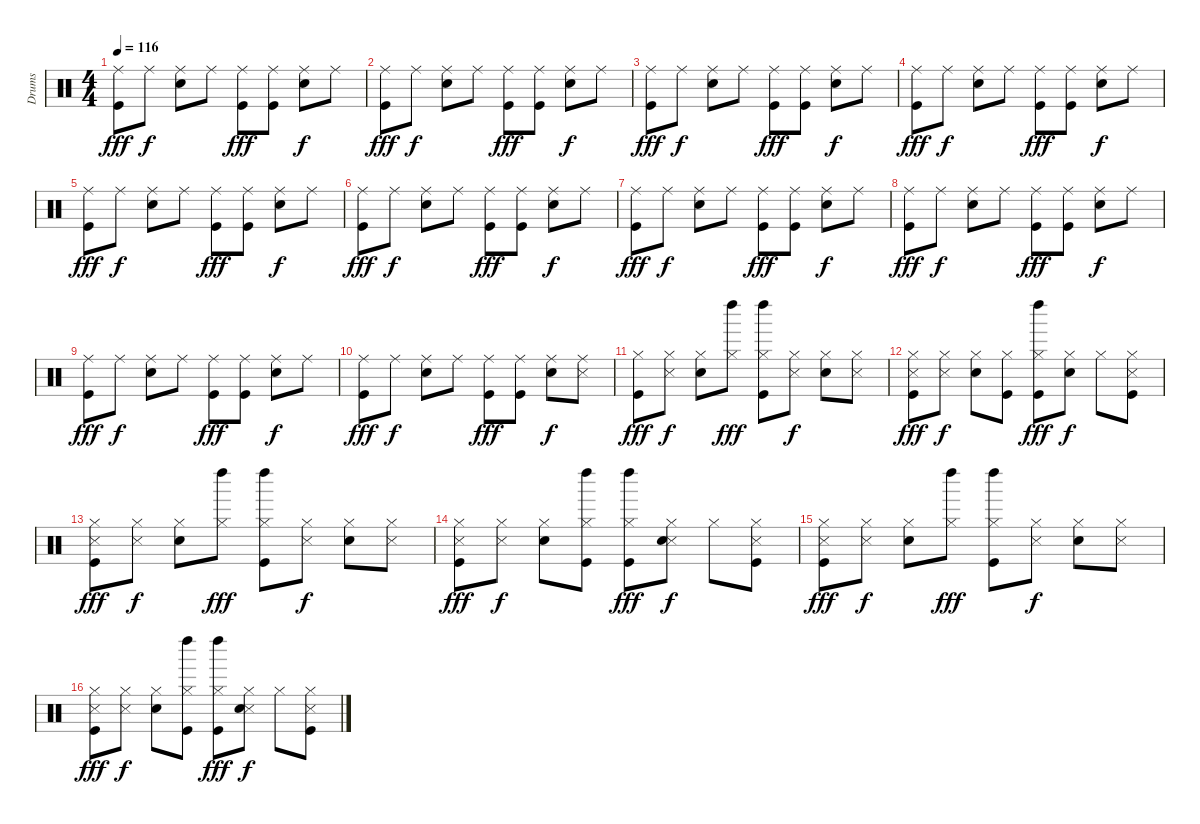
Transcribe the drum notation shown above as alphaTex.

\track ("Drums" "Drums") {instrument percussion}
\staff {score}
\articulation defaults
\ts (4 4)
\tempo 116
\clef neutral
\ks c
("Ride (middle)" "Kick (hit)").8{dy fff} "Ride (middle)".8{dy f} ("Ride (middle)" "Snare (hit) 2").8 "Ride (middle)".8 ("Ride (middle)" "Kick (hit)").8{dy fff} ("Ride (middle)" "Kick (hit)").8 ("Ride (middle)" "Snare (hit) 2").8{dy f} "Ride (middle)".8 |
("Ride (middle)" "Kick (hit)").8{dy fff} "Ride (middle)".8{dy f} ("Ride (middle)" "Snare (hit) 2").8 "Ride (middle)".8 ("Ride (middle)" "Kick (hit)").8{dy fff} ("Ride (middle)" "Kick (hit)").8 ("Ride (middle)" "Snare (hit) 2").8{dy f} "Ride (middle)".8 |
("Ride (middle)" "Kick (hit)").8{dy fff} "Ride (middle)".8{dy f} ("Ride (middle)" "Snare (hit) 2").8 "Ride (middle)".8 ("Ride (middle)" "Kick (hit)").8{dy fff} ("Ride (middle)" "Kick (hit)").8 ("Ride (middle)" "Snare (hit) 2").8{dy f} "Ride (middle)".8 |
("Ride (middle)" "Kick (hit)").8{dy fff} "Ride (middle)".8{dy f} ("Ride (middle)" "Snare (hit) 2").8 "Ride (middle)".8 ("Ride (middle)" "Kick (hit)").8{dy fff} ("Ride (middle)" "Kick (hit)").8 ("Ride (middle)" "Snare (hit) 2").8{dy f} "Ride (middle)".8 |
("Ride (middle)" "Kick (hit)").8{dy fff} "Ride (middle)".8{dy f} ("Ride (middle)" "Snare (hit) 2").8 "Ride (middle)".8 ("Ride (middle)" "Kick (hit)").8{dy fff} ("Ride (middle)" "Kick (hit)").8 ("Ride (middle)" "Snare (hit) 2").8{dy f} "Ride (middle)".8 |
("Ride (middle)" "Kick (hit)").8{dy fff} "Ride (middle)".8{dy f} ("Ride (middle)" "Snare (hit) 2").8 "Ride (middle)".8 ("Ride (middle)" "Kick (hit)").8{dy fff} ("Ride (middle)" "Kick (hit)").8 ("Ride (middle)" "Snare (hit) 2").8{dy f} "Ride (middle)".8 |
("Ride (middle)" "Kick (hit)").8{dy fff} "Ride (middle)".8{dy f} ("Ride (middle)" "Snare (hit) 2").8 "Ride (middle)".8 ("Ride (middle)" "Kick (hit)").8{dy fff} ("Ride (middle)" "Kick (hit)").8 ("Ride (middle)" "Snare (hit) 2").8{dy f} "Ride (middle)".8 |
("Ride (middle)" "Kick (hit)").8{dy fff} "Ride (middle)".8{dy f} ("Ride (middle)" "Snare (hit) 2").8 "Ride (middle)".8 ("Ride (middle)" "Kick (hit)").8{dy fff} ("Ride (middle)" "Kick (hit)").8 ("Ride (middle)" "Snare (hit) 2").8{dy f} "Ride (middle)".8 |
("Ride (middle)" "Kick (hit)").8{dy fff} "Ride (middle)".8{dy f} ("Ride (middle)" "Snare (hit) 2").8 "Ride (middle)".8 ("Ride (middle)" "Kick (hit)").8{dy fff} ("Ride (middle)" "Kick (hit)").8 ("Ride (middle)" "Snare (hit) 2").8{dy f} "Ride (middle)".8 |
("Ride (middle)" "Kick (hit)").8{dy fff} "Ride (middle)".8{dy f} ("Ride (middle)" "Snare (hit) 2").8 "Ride (middle)".8 ("Ride (middle)" "Kick (hit)").8{dy fff} ("Ride (middle)" "Kick (hit)").8 ("Ride (middle)" "Snare (hit) 2").8{dy f} ("Ride (middle)" "Snare (side stick) 3").8 |
("Hi-Hat (closed)" "Kick (hit)").8{dy fff} ("Hi-Hat (closed)" "Snare (side stick) 3").8{dy f} ("Hi-Hat (closed)" "Snare (hit) 2").8 ("Hi-Hat (closed)" "Left Maraca (hit)").8{dy fff} ("Hi-Hat (closed)" "Left Maraca (hit)" "Kick (hit)").8 ("Hi-Hat (closed)" "Snare (side stick) 3").8{dy f} ("Hi-Hat (closed)" "Snare (hit) 2").8 ("Hi-Hat (closed)" "Snare (side stick) 3").8 |
("Hi-Hat (closed)" "Snare (side stick) 3" "Kick (hit)").8{dy fff} ("Hi-Hat (closed)" "Snare (side stick) 3").8{dy f} ("Hi-Hat (closed)" "Snare (hit) 2").8 ("Hi-Hat (closed)" "Kick (hit)").8 ("Hi-Hat (closed)" "Left Maraca (hit)" "Kick (hit)").8{dy fff} ("Hi-Hat (closed)" "Snare (hit) 2").8{dy f} "Hi-Hat (closed)".8 ("Hi-Hat (closed)" "Snare (side stick) 3" "Kick (hit)").8 |
("Hi-Hat (closed)" "Snare (side stick) 3" "Kick (hit)").8{dy fff} ("Hi-Hat (closed)" "Snare (side stick) 3").8{dy f} ("Hi-Hat (closed)" "Snare (hit) 2").8 ("Hi-Hat (closed)" "Left Maraca (hit)").8{dy fff} ("Hi-Hat (closed)" "Left Maraca (hit)" "Kick (hit)").8 ("Hi-Hat (closed)" "Snare (side stick) 3").8{dy f} ("Hi-Hat (closed)" "Snare (hit) 2").8 ("Hi-Hat (closed)" "Snare (side stick) 3").8 |
("Hi-Hat (closed)" "Snare (side stick) 3" "Kick (hit)").8{dy fff} ("Hi-Hat (closed)" "Snare (side stick) 3").8{dy f} ("Hi-Hat (closed)" "Snare (hit) 2").8 ("Hi-Hat (closed)" "Left Maraca (hit)" "Kick (hit)").8 ("Hi-Hat (closed)" "Left Maraca (hit)" "Kick (hit)").8{dy fff} ("Hi-Hat (closed)" "Snare (side stick) 3" "Snare (hit) 2").8{dy f} "Hi-Hat (closed)".8 ("Hi-Hat (closed)" "Snare (side stick) 3" "Kick (hit)").8 |
("Hi-Hat (closed)" "Snare (side stick) 3" "Kick (hit)").8{dy fff} ("Hi-Hat (closed)" "Snare (side stick) 3").8{dy f} ("Hi-Hat (closed)" "Snare (hit) 2").8 ("Hi-Hat (closed)" "Left Maraca (hit)").8{dy fff} ("Hi-Hat (closed)" "Left Maraca (hit)" "Kick (hit)").8 ("Hi-Hat (closed)" "Snare (side stick) 3").8{dy f} ("Hi-Hat (closed)" "Snare (hit) 2").8 ("Hi-Hat (closed)" "Snare (side stick) 3").8 |
("Hi-Hat (closed)" "Snare (side stick) 3" "Kick (hit)").8{dy fff} ("Hi-Hat (closed)" "Snare (side stick) 3").8{dy f} ("Hi-Hat (closed)" "Snare (hit) 2").8 ("Hi-Hat (closed)" "Left Maraca (hit)" "Kick (hit)").8 ("Hi-Hat (closed)" "Left Maraca (hit)" "Kick (hit)").8{dy fff} ("Hi-Hat (closed)" "Snare (side stick) 3" "Snare (hit) 2").8{dy f} "Hi-Hat (closed)".8 ("Hi-Hat (closed)" "Snare (side stick) 3" "Kick (hit)").8
